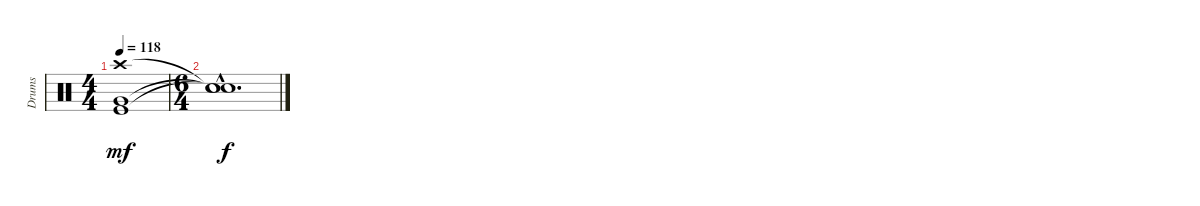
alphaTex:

\track ("Drums" "Drums") {instrument percussion}
\staff {score}
\articulation defaults
\ts (4 4)
\tempo 118
\clef neutral
\ks c
("Crash high (hit)" "Very Low Tom (hit)" "Kick (hit)").1{dy mf} |
\ts (6 4)
("Snare (hit)"{hac t} "Snare (hit)"{hac t} "Snare (hit)"{hac t}).1{d dy f}
